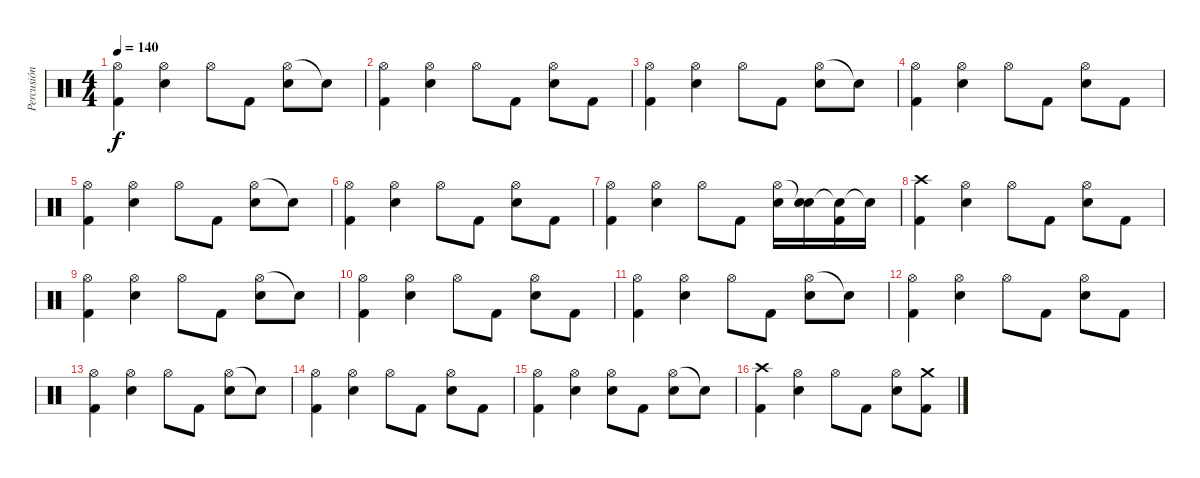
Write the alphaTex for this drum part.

\track ("Percusión" "Percusión") {instrument percussion}
\staff {score}
\articulation defaults
\ts (4 4)
\tempo 140
\clef neutral
\ks c
("Hi-Hat (open)" "Kick (hit) 2").4{dy f} ("Hi-Hat (open)" "Snare (hit) 2").4 "Hi-Hat (open)".8 "Kick (hit) 2".8 ("Hi-Hat (open)" "Snare (hit) 2").8 "Snare (hit)"{t}.8 |
("Hi-Hat (open)" "Kick (hit) 2").4 ("Hi-Hat (open)" "Snare (hit) 2").4 "Hi-Hat (open)".8 "Kick (hit) 2".8 ("Hi-Hat (open)" "Snare (hit) 2").8 "Kick (hit) 2".8 |
("Hi-Hat (open)" "Kick (hit) 2").4 ("Hi-Hat (open)" "Snare (hit) 2").4 "Hi-Hat (open)".8 "Kick (hit) 2".8 ("Hi-Hat (open)" "Snare (hit) 2").8 "Snare (hit)"{t}.8 |
("Hi-Hat (open)" "Kick (hit) 2").4 ("Hi-Hat (open)" "Snare (hit) 2").4 "Hi-Hat (open)".8 "Kick (hit) 2".8 ("Hi-Hat (open)" "Snare (hit) 2").8 "Kick (hit) 2".8 |
("Hi-Hat (open)" "Kick (hit) 2").4 ("Hi-Hat (open)" "Snare (hit) 2").4 "Hi-Hat (open)".8 "Kick (hit) 2".8 ("Hi-Hat (open)" "Snare (hit) 2").8 "Snare (hit)"{t}.8 |
("Hi-Hat (open)" "Kick (hit) 2").4 ("Hi-Hat (open)" "Snare (hit) 2").4 "Hi-Hat (open)".8 "Kick (hit) 2".8 ("Hi-Hat (open)" "Snare (hit) 2").8 "Kick (hit) 2".8 |
("Hi-Hat (open)" "Kick (hit) 2").4 ("Hi-Hat (open)" "Snare (hit) 2").4 "Hi-Hat (open)".8 "Kick (hit) 2".8 ("Hi-Hat (open)" "Snare (hit) 2").16 ("Snare (hit)"{t} "Snare (hit) 2").16 ("Snare (hit)"{t} "Kick (hit) 2").16 "Snare (hit)"{t}.16 |
("Crash high (hit)" "Kick (hit) 2").4 ("Hi-Hat (open)" "Snare (hit) 2").4 "Hi-Hat (open)".8 "Kick (hit) 2".8 ("Hi-Hat (open)" "Snare (hit) 2").8 "Kick (hit) 2".8 |
("Hi-Hat (open)" "Kick (hit) 2").4 ("Hi-Hat (open)" "Snare (hit) 2").4 "Hi-Hat (open)".8 "Kick (hit) 2".8 ("Hi-Hat (open)" "Snare (hit) 2").8 "Snare (hit)"{t}.8 |
("Hi-Hat (open)" "Kick (hit) 2").4 ("Hi-Hat (open)" "Snare (hit) 2").4 "Hi-Hat (open)".8 "Kick (hit) 2".8 ("Hi-Hat (open)" "Snare (hit) 2").8 "Kick (hit) 2".8 |
("Hi-Hat (open)" "Kick (hit) 2").4 ("Hi-Hat (open)" "Snare (hit) 2").4 "Hi-Hat (open)".8 "Kick (hit) 2".8 ("Hi-Hat (open)" "Snare (hit) 2").8 "Snare (hit)"{t}.8 |
("Hi-Hat (open)" "Kick (hit) 2").4 ("Hi-Hat (open)" "Snare (hit) 2").4 "Hi-Hat (open)".8 "Kick (hit) 2".8 ("Hi-Hat (open)" "Snare (hit) 2").8 "Kick (hit) 2".8 |
("Hi-Hat (open)" "Kick (hit) 2").4 ("Hi-Hat (open)" "Snare (hit) 2").4 "Hi-Hat (open)".8 "Kick (hit) 2".8 ("Hi-Hat (open)" "Snare (hit) 2").8 "Snare (hit)"{t}.8 |
("Hi-Hat (open)" "Kick (hit) 2").4 ("Hi-Hat (open)" "Snare (hit) 2").4 "Hi-Hat (open)".8 "Kick (hit) 2".8 ("Hi-Hat (open)" "Snare (hit) 2").8 "Kick (hit) 2".8 |
("Hi-Hat (open)" "Kick (hit) 2").4 ("Hi-Hat (open)" "Snare (hit) 2").4 ("Hi-Hat (open)" "Snare (hit) 2").8 "Kick (hit) 2".8 ("Hi-Hat (open)" "Snare (hit) 2").8 "Snare (hit)"{t}.8 |
("Crash high (hit)" "Kick (hit) 2").4 ("Hi-Hat (open)" "Snare (hit) 2").4 "Hi-Hat (open)".8 "Kick (hit) 2".8 ("Hi-Hat (open)" "Snare (hit) 2").8 ("Crash medium (hit)" "Kick (hit) 2").8
